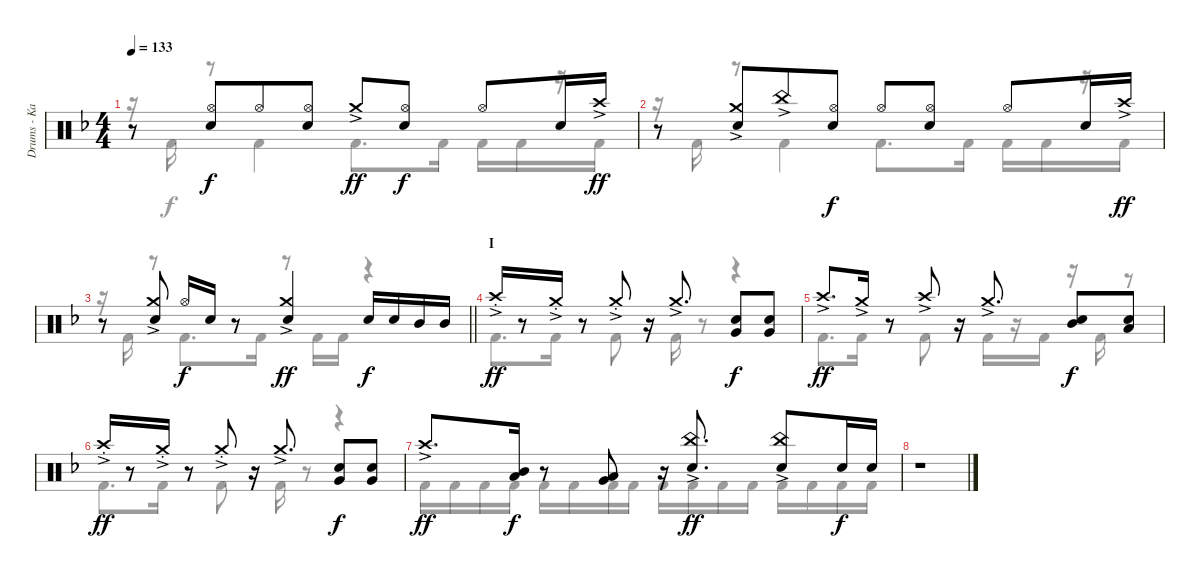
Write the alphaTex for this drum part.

\track ("Drums - Kai" "Drums - Ka") {instrument percussion}
\staff {score}
\articulation defaults
\voice
\ts (4 4)
\tempo 133
\clef neutral
\ks f
r.8{dy ff} ("Hi-Hat (open)" "Snare (hit) 2").8{dy f beam merge} "Hi-Hat (open)".8 ("Hi-Hat (open)" "Snare (hit) 2").8 "Crash medium (hit)"{ac}.8{dy ff} ("Hi-Hat (open)" "Snare (hit) 2").8{dy f beam split} "Hi-Hat (open)".8 "Snare (hit) 2".16 "Crash high (hit)"{ac}.16{dy ff} |
r.8 ("Crash medium (hit)"{ac} "Snare (hit) 2").8{beam merge} "China (hit)"{ac}.8 ("Hi-Hat (open)" "Snare (hit) 2").8{dy f} "Hi-Hat (open)".8 ("Hi-Hat (open)" "Snare (hit) 2").8 "Hi-Hat (open)".8 "Snare (hit) 2".16 "Crash high (hit)"{ac}.16{dy ff} |
\barLineRight lightlight
r.8 ("Crash medium (hit)"{ac} "Snare (hit) 2").8 "Hi-Hat (open)".16{dy f} "Snare (hit) 2".16 r.8 ("Crash medium (hit)"{ac} "Snare (hit) 2").4{dy ff} "Snare (hit) 2".16{dy f} "Snare (hit) 2".16 "Mid Tom (hit)".16 "Mid Tom (hit)".16 |
\section ("" "I")
"Crash high (hit)"{ac st}.16{dy ff} r.8 "Crash medium (hit)"{ac st}.16 r.8 "Crash medium (hit)"{ac st}.8 r.16 "Crash medium (hit)"{ac}.8{d} ("Very Low Tom (hit)" "Snare (hit) 2").8{dy f} ("Very Low Tom (hit)" "Snare (hit) 2").8 |
"Crash high (hit)"{ac}.8{d dy ff} "Crash medium (hit)"{ac}.16 r.8 "Crash high (hit)"{ac}.8 r.16 "Crash medium (hit)"{ac}.8{d} ("Mid Tom (hit)" "Snare (hit) 2").8{dy f} ("Low Tom (hit)" "Snare (hit) 2").8 |
"Crash high (hit)"{ac st}.16{dy ff} r.8 "Crash medium (hit)"{ac st}.16 r.8 "Crash medium (hit)"{ac st}.8 r.16 "Crash medium (hit)"{ac}.8{d} ("Very Low Tom (hit)" "Snare (hit) 2").8{dy f} ("Very Low Tom (hit)" "Snare (hit) 2").8 |
"Crash high (hit)"{ac}.8{d dy ff} ("Mid Tom (hit)" "Low Tom (hit)").16{dy f} r.8 ("Low Tom (hit)" "Very Low Tom (hit)").8 r.16 ("China (hit)"{ac} "Snare (hit) 2").8{d dy ff} ("China (hit)"{ac} "Snare (hit) 2").8 "Snare (hit) 2".16{dy f} "Snare (hit) 2".16 |
r.1
\voice
\clef neutral
\ottava regular
\simile none
\ks f
r.16{dy f} "Kick (hit) 2".16 r.8 "Kick (hit) 2".4 "Kick (hit) 2".8{d} "Kick (hit) 2".16 "Kick (hit) 2".16 "Kick (hit) 2".16 r.16 "Kick (hit) 2".16 |
r.16 "Kick (hit) 2".16 r.8 "Kick (hit) 2".4 "Kick (hit) 2".8{d} "Kick (hit) 2".16 "Kick (hit) 2".16 "Kick (hit) 2".16 r.16 "Kick (hit) 2".16 |
\barLineRight lightlight
r.16 "Kick (hit) 2".16 r.8 "Kick (hit) 2".8{d} "Kick (hit) 2".16 r.8 "Kick (hit) 2".16 "Kick (hit) 2".16 r.4 |
"Kick (hit) 2".8{d} "Kick (hit) 2".16 r.8 "Kick (hit) 2".8 r.16 "Kick (hit) 2".16 r.8 r.4 |
"Kick (hit) 2".8{d} "Kick (hit) 2".16 r.8 "Kick (hit) 2".8 r.16 "Kick (hit) 2".16 r.16 "Kick (hit) 2".16 r.16 "Kick (hit) 2".16 r.8 |
"Kick (hit) 2".8{d} "Kick (hit) 2".16 r.8 "Kick (hit) 2".8 r.16 "Kick (hit) 2".16 r.8 r.4 |
"Kick (hit) 2".16 "Kick (hit) 2".16 "Kick (hit) 2".16 "Kick (hit) 2".16 "Kick (hit) 2".16 "Kick (hit) 2".16 "Kick (hit) 2".16 "Kick (hit) 2".16 "Kick (hit) 2".16 "Kick (hit) 2".16 "Kick (hit) 2".16 "Kick (hit) 2".16 "Kick (hit) 2".16 "Kick (hit) 2".16 "Kick (hit) 2".16 "Kick (hit) 2".16 |
